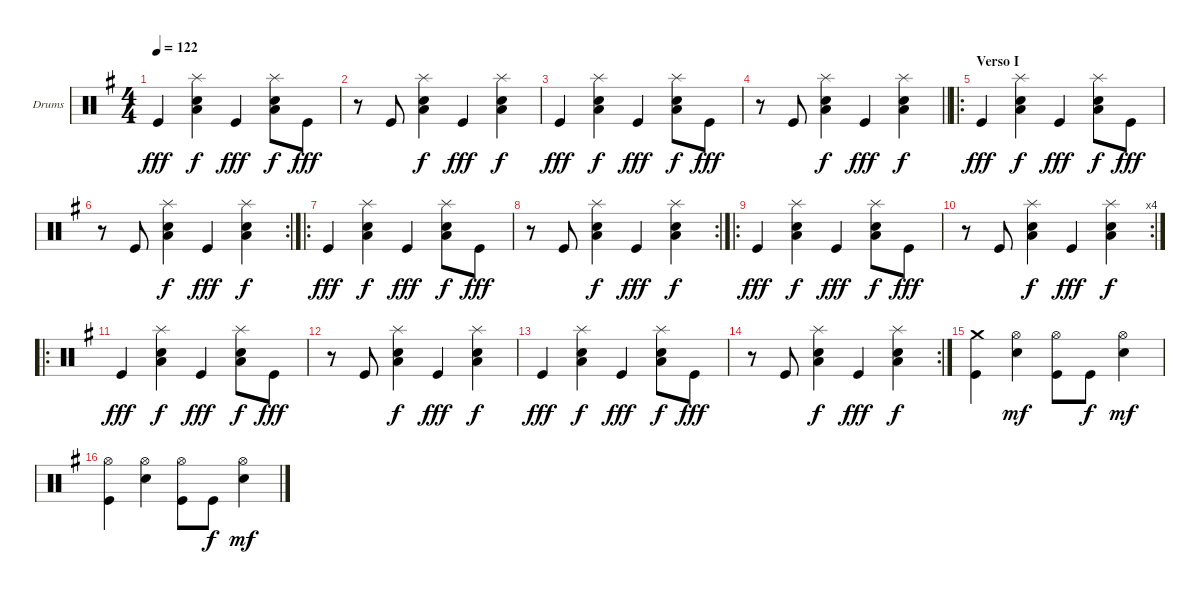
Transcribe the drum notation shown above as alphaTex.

\bracketExtendMode groupsimilarinstruments
\firstSystemTrackNameOrientation horizontal
\otherSystemsTrackNameOrientation horizontal
\track ("Drumkit" "Drums") {instrument percussion}
\staff {score}
\articulation defaults
\ts (4 4)
\tempo 122
\clef neutral
\ks g "Kick (hit)".4{dy fff}
("Splash (hit)" "Low Tom (hit)" "Snare (hit) 2").4{dy f} "Kick (hit)".4{dy fff} ("Splash (hit)" "Low Tom (hit)" "Snare (hit) 2").8{dy f} "Kick (hit)".8{dy fff} |
r.8 "Kick (hit)".8 ("Splash (hit)" "Low Tom (hit)" "Snare (hit) 2").4{dy f} "Kick (hit)".4{dy fff} ("Splash (hit)" "Low Tom (hit)" "Snare (hit) 2").4{dy f} |
"Kick (hit)".4{dy fff} ("Splash (hit)" "Low Tom (hit)" "Snare (hit) 2").4{dy f} "Kick (hit)".4{dy fff} ("Splash (hit)" "Low Tom (hit)" "Snare (hit) 2").8{dy f} "Kick (hit)".8{dy fff} |
\barLineRight lightlight
r.8 "Kick (hit)".8 ("Splash (hit)" "Low Tom (hit)" "Snare (hit) 2").4{dy f} "Kick (hit)".4{dy fff} ("Splash (hit)" "Low Tom (hit)" "Snare (hit) 2").4{dy f} |
\ro
\section ("" "Verso I")
"Kick (hit)".4{dy fff} ("Splash (hit)" "Low Tom (hit)" "Snare (hit) 2").4{dy f} "Kick (hit)".4{dy fff} ("Splash (hit)" "Low Tom (hit)" "Snare (hit) 2").8{dy f} "Kick (hit)".8{dy fff} |
\rc 2
r.8 "Kick (hit)".8 ("Splash (hit)" "Low Tom (hit)" "Snare (hit) 2").4{dy f} "Kick (hit)".4{dy fff} ("Splash (hit)" "Low Tom (hit)" "Snare (hit) 2").4{dy f} |
\ro "Kick (hit)".4{dy fff}
("Splash (hit)" "Low Tom (hit)" "Snare (hit) 2").4{dy f} "Kick (hit)".4{dy fff} ("Splash (hit)" "Low Tom (hit)" "Snare (hit) 2").8{dy f} "Kick (hit)".8{dy fff} |
\rc 2
r.8 "Kick (hit)".8 ("Splash (hit)" "Low Tom (hit)" "Snare (hit) 2").4{dy f} "Kick (hit)".4{dy fff} ("Splash (hit)" "Low Tom (hit)" "Snare (hit) 2").4{dy f} |
\ro "Kick (hit)".4{dy fff}
("Splash (hit)" "Low Tom (hit)" "Snare (hit) 2").4{dy f} "Kick (hit)".4{dy fff} ("Splash (hit)" "Low Tom (hit)" "Snare (hit) 2").8{dy f} "Kick (hit)".8{dy fff} |
\rc 4
r.8 "Kick (hit)".8 ("Splash (hit)" "Low Tom (hit)" "Snare (hit) 2").4{dy f} "Kick (hit)".4{dy fff} ("Splash (hit)" "Low Tom (hit)" "Snare (hit) 2").4{dy f} |
\ro "Kick (hit)".4{dy fff}
("Splash (hit)" "Low Tom (hit)" "Snare (hit) 2").4{dy f} "Kick (hit)".4{dy fff} ("Splash (hit)" "Low Tom (hit)" "Snare (hit) 2").8{dy f} "Kick (hit)".8{dy fff} |
r.8 "Kick (hit)".8 ("Splash (hit)" "Low Tom (hit)" "Snare (hit) 2").4{dy f} "Kick (hit)".4{dy fff} ("Splash (hit)" "Low Tom (hit)" "Snare (hit) 2").4{dy f} |
"Kick (hit)".4{dy fff} ("Splash (hit)" "Low Tom (hit)" "Snare (hit) 2").4{dy f} "Kick (hit)".4{dy fff} ("Splash (hit)" "Low Tom (hit)" "Snare (hit) 2").8{dy f} "Kick (hit)".8{dy fff} |
\rc 2
r.8 "Kick (hit)".8 ("Splash (hit)" "Low Tom (hit)" "Snare (hit) 2").4{dy f} "Kick (hit)".4{dy fff} ("Splash (hit)" "Low Tom (hit)" "Snare (hit) 2").4{dy f} |
("Crash medium (hit)" "Kick (hit)").4 ("Hi-Hat (open)" "Snare (hit) 2").4{dy mf} ("Hi-Hat (open)" "Kick (hit)").8 "Kick (hit)".8{dy f} ("Hi-Hat (open)" "Snare (hit) 2").4{dy mf} |
("Hi-Hat (open)" "Kick (hit)").4 ("Hi-Hat (open)" "Snare (hit) 2").4 ("Hi-Hat (open)" "Kick (hit)").8 "Kick (hit)".8{dy f} ("Hi-Hat (open)" "Snare (hit) 2").4{dy mf}
